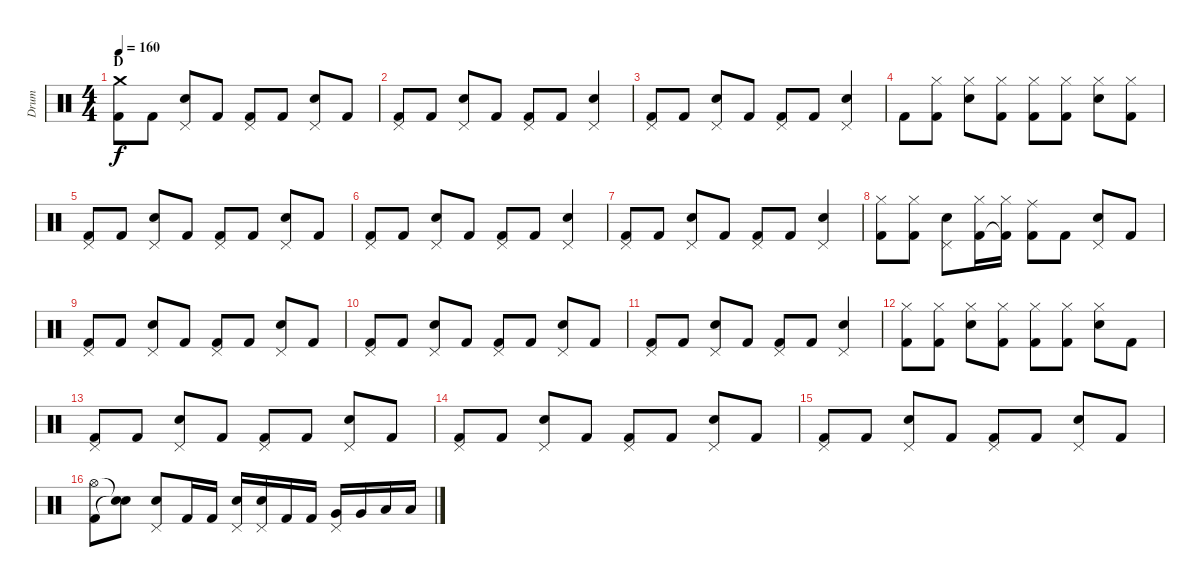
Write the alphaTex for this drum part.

\track ("Drum" "Drum") {instrument percussion}
\staff {score}
\articulation defaults
\ts (4 4)
\section ("" "D")
\tempo 160
\clef neutral
\ks c
("Crash medium (hit)" "Kick (hit) 2").8{dy f} "Kick (hit) 2".8 ("Pedal Hi-Hat (hit)" "Snare (hit) 2").8 "Kick (hit) 2".8 ("Pedal Hi-Hat (hit)" "Kick (hit) 2").8 "Kick (hit) 2".8 ("Pedal Hi-Hat (hit)" "Snare (hit) 2").8 "Kick (hit) 2".8 |
("Pedal Hi-Hat (hit)" "Kick (hit) 2").8 "Kick (hit) 2".8 ("Pedal Hi-Hat (hit)" "Snare (hit) 2").8 "Kick (hit) 2".8 ("Pedal Hi-Hat (hit)" "Kick (hit) 2").8 "Kick (hit) 2".8 ("Pedal Hi-Hat (hit)" "Snare (hit) 2").4 |
("Pedal Hi-Hat (hit)" "Kick (hit) 2").8 "Kick (hit) 2".8 ("Pedal Hi-Hat (hit)" "Snare (hit) 2").8 "Kick (hit) 2".8 ("Pedal Hi-Hat (hit)" "Kick (hit) 2").8 "Kick (hit) 2".8 ("Pedal Hi-Hat (hit)" "Snare (hit) 2").4 |
"Kick (hit) 2".8 ("Hi-Hat (closed)" "Kick (hit) 2").8 ("Hi-Hat (closed)" "Snare (hit) 2").8 ("Hi-Hat (closed)" "Kick (hit) 2").8 ("Hi-Hat (closed)" "Kick (hit) 2").8 ("Hi-Hat (closed)" "Kick (hit) 2").8 ("Hi-Hat (closed)" "Snare (hit) 2").8 ("Hi-Hat (closed)" "Kick (hit) 2").8 |
("Pedal Hi-Hat (hit)" "Kick (hit) 2").8 "Kick (hit) 2".8 ("Pedal Hi-Hat (hit)" "Snare (hit) 2").8 "Kick (hit) 2".8 ("Pedal Hi-Hat (hit)" "Kick (hit) 2").8 "Kick (hit) 2".8 ("Pedal Hi-Hat (hit)" "Snare (hit) 2").8 "Kick (hit) 2".8 |
("Pedal Hi-Hat (hit)" "Kick (hit) 2").8 "Kick (hit) 2".8 ("Pedal Hi-Hat (hit)" "Snare (hit) 2").8 "Kick (hit) 2".8 ("Pedal Hi-Hat (hit)" "Kick (hit) 2").8 "Kick (hit) 2".8 ("Pedal Hi-Hat (hit)" "Snare (hit) 2").4 |
("Pedal Hi-Hat (hit)" "Kick (hit) 2").8 "Kick (hit) 2".8 ("Pedal Hi-Hat (hit)" "Snare (hit) 2").8 "Kick (hit) 2".8 ("Pedal Hi-Hat (hit)" "Kick (hit) 2").8 "Kick (hit) 2".8 ("Pedal Hi-Hat (hit)" "Snare (hit) 2").4 |
("Hi-Hat (closed)" "Kick (hit) 2").8 ("Hi-Hat (closed)" "Kick (hit) 2").8 ("Pedal Hi-Hat (hit)" "Snare (hit) 2").8 ("Hi-Hat (closed)" "Kick (hit) 2").16 ("Hi-Hat (closed)" "Kick (hit) 2"{t}).16 ("Ride (middle)" "Kick (hit) 2").8 "Kick (hit) 2".8 ("Pedal Hi-Hat (hit)" "Snare (hit) 2").8 "Kick (hit) 2".8 |
("Pedal Hi-Hat (hit)" "Kick (hit) 2").8 "Kick (hit) 2".8 ("Pedal Hi-Hat (hit)" "Snare (hit) 2").8 "Kick (hit) 2".8 ("Pedal Hi-Hat (hit)" "Kick (hit) 2").8 "Kick (hit) 2".8 ("Pedal Hi-Hat (hit)" "Snare (hit) 2").8 "Kick (hit) 2".8 |
("Pedal Hi-Hat (hit)" "Kick (hit) 2").8 "Kick (hit) 2".8 ("Pedal Hi-Hat (hit)" "Snare (hit) 2").8 "Kick (hit) 2".8 ("Pedal Hi-Hat (hit)" "Kick (hit) 2").8 "Kick (hit) 2".8 ("Pedal Hi-Hat (hit)" "Snare (hit) 2").8 "Kick (hit) 2".8 |
("Pedal Hi-Hat (hit)" "Kick (hit) 2").8 "Kick (hit) 2".8 ("Pedal Hi-Hat (hit)" "Snare (hit) 2").8 "Kick (hit) 2".8 ("Pedal Hi-Hat (hit)" "Kick (hit) 2").8 "Kick (hit) 2".8 ("Pedal Hi-Hat (hit)" "Snare (hit) 2").4 |
("Hi-Hat (closed)" "Kick (hit) 2").8 ("Hi-Hat (closed)" "Kick (hit) 2").8 ("Hi-Hat (closed)" "Snare (hit) 2").8 ("Hi-Hat (closed)" "Kick (hit) 2").8 ("Hi-Hat (closed)" "Kick (hit) 2").8 ("Hi-Hat (closed)" "Kick (hit) 2").8 ("Hi-Hat (closed)" "Snare (hit) 2").8 "Kick (hit) 2".8 |
("Pedal Hi-Hat (hit)" "Kick (hit) 2").8 "Kick (hit) 2".8 ("Pedal Hi-Hat (hit)" "Snare (hit) 2").8 "Kick (hit) 2".8 ("Pedal Hi-Hat (hit)" "Kick (hit) 2").8 "Kick (hit) 2".8 ("Pedal Hi-Hat (hit)" "Snare (hit) 2").8 "Kick (hit) 2".8 |
("Pedal Hi-Hat (hit)" "Kick (hit) 2").8 "Kick (hit) 2".8 ("Pedal Hi-Hat (hit)" "Snare (hit) 2").8 "Kick (hit) 2".8 ("Pedal Hi-Hat (hit)" "Kick (hit) 2").8 "Kick (hit) 2".8 ("Pedal Hi-Hat (hit)" "Snare (hit) 2").8 "Kick (hit) 2".8 |
("Pedal Hi-Hat (hit)" "Kick (hit) 2").8 "Kick (hit) 2".8 ("Pedal Hi-Hat (hit)" "Snare (hit) 2").8 "Kick (hit) 2".8 ("Pedal Hi-Hat (hit)" "Kick (hit) 2").8 "Kick (hit) 2".8 ("Pedal Hi-Hat (hit)" "Snare (hit) 2").8 "Kick (hit) 2".8 |
("Hi-Hat (open)" "Kick (hit) 2").8 ("Snare (hit)"{t} "Snare (hit)"{t}).8 ("Pedal Hi-Hat (hit)" "Snare (hit) 2").8 "Kick (hit) 2".16 "Kick (hit) 2".16 ("Pedal Hi-Hat (hit)" "Snare (hit) 2").16 ("Pedal Hi-Hat (hit)" "Snare (hit) 2").16 "Kick (hit) 2".16 "Kick (hit) 2".16 ("Pedal Hi-Hat (hit)" "Very Low Tom (hit)").16 "Very Low Tom (hit)".16 "Low Floor Tom (hit)".16 "Low Floor Tom (hit)".16
